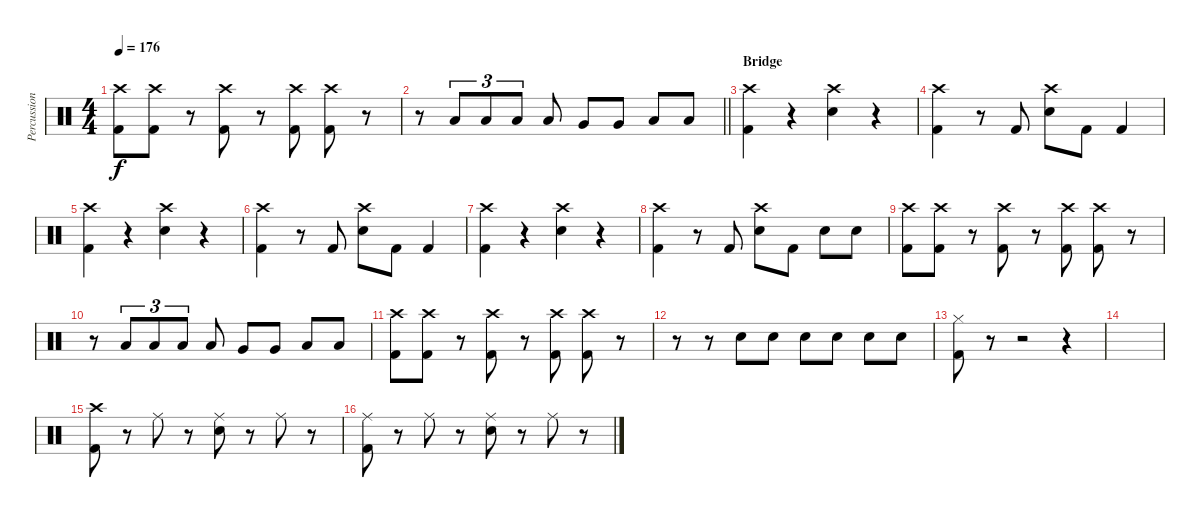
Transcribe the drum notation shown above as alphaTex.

\track ("Percussion" "Percussion") {instrument percussion}
\staff {score}
\articulation defaults
\ts (4 4)
\tempo 176
\clef neutral
\ks c
("Crash high (hit)" "Kick (hit) 2").8{dy f} ("Crash high (hit)" "Kick (hit) 2").8 r.8 ("Crash high (hit)" "Kick (hit) 2").8 r.8 ("Crash high (hit)" "Kick (hit) 2").8 ("Crash high (hit)" "Kick (hit) 2").8 r.8 |
\barLineRight lightlight
r.8 "Low Tom (hit)".8{tu (3 2)} "Low Tom (hit)".8{tu (3 2)} "Low Tom (hit)".8{tu (3 2)} "Low Tom (hit)".8 "Very Low Tom (hit)".8 "Very Low Tom (hit)".8 "Low Floor Tom (hit)".8 "Low Floor Tom (hit)".8 |
\section ("" "Bridge")
("Crash high (hit)" "Kick (hit) 2").4 r.4 ("Crash high (hit)" "Snare (hit) 2").4 r.4 |
("Crash high (hit)" "Kick (hit) 2").4 r.8 "Kick (hit) 2".8 ("Crash high (hit)" "Snare (hit) 2").8 "Kick (hit) 2".8 "Kick (hit) 2".4 |
("Crash high (hit)" "Kick (hit) 2").4 r.4 ("Crash high (hit)" "Snare (hit) 2").4 r.4 |
("Crash high (hit)" "Kick (hit) 2").4 r.8 "Kick (hit) 2".8 ("Crash high (hit)" "Snare (hit) 2").8 "Kick (hit) 2".8 "Kick (hit) 2".4 |
("Crash high (hit)" "Kick (hit) 2").4 r.4 ("Crash high (hit)" "Snare (hit) 2").4 r.4 |
("Crash high (hit)" "Kick (hit) 2").4 r.8 "Kick (hit) 2".8 ("Crash high (hit)" "Snare (hit) 2").8 "Kick (hit) 2".8 "Snare (hit) 2".8 "Snare (hit) 2".8 |
("Crash high (hit)" "Kick (hit) 2").8 ("Crash high (hit)" "Kick (hit) 2").8 r.8 ("Crash high (hit)" "Kick (hit) 2").8 r.8 ("Crash high (hit)" "Kick (hit) 2").8 ("Crash high (hit)" "Kick (hit) 2").8 r.8 |
r.8 "Low Tom (hit)".8{tu (3 2)} "Low Tom (hit)".8{tu (3 2)} "Low Tom (hit)".8{tu (3 2)} "Low Tom (hit)".8 "Very Low Tom (hit)".8 "Very Low Tom (hit)".8 "Low Floor Tom (hit)".8 "Low Floor Tom (hit)".8 |
("Crash high (hit)" "Kick (hit) 2").8 ("Crash high (hit)" "Kick (hit) 2").8 r.8 ("Crash high (hit)" "Kick (hit) 2").8 r.8 ("Crash high (hit)" "Kick (hit) 2").8 ("Crash high (hit)" "Kick (hit) 2").8 r.8 |
r.8 r.8 "Snare (hit) 2".8 "Snare (hit) 2".8 "Snare (hit) 2".8 "Snare (hit) 2".8 "Snare (hit) 2".8 "Snare (hit) 2".8 |
("Hi-Hat (closed)" "Kick (hit) 2").8 r.8 r.2 r.4 |
|
("Crash high (hit)" "Kick (hit) 2").8 r.8 "Ride (middle)".8 r.8 ("Ride (middle)" "Snare (hit) 2").8 r.8 "Ride (middle)".8 r.8 |
("Ride (middle)" "Kick (hit) 2").8 r.8 "Ride (middle)".8 r.8 ("Ride (middle)" "Snare (hit) 2").8 r.8 "Ride (middle)".8 r.8
